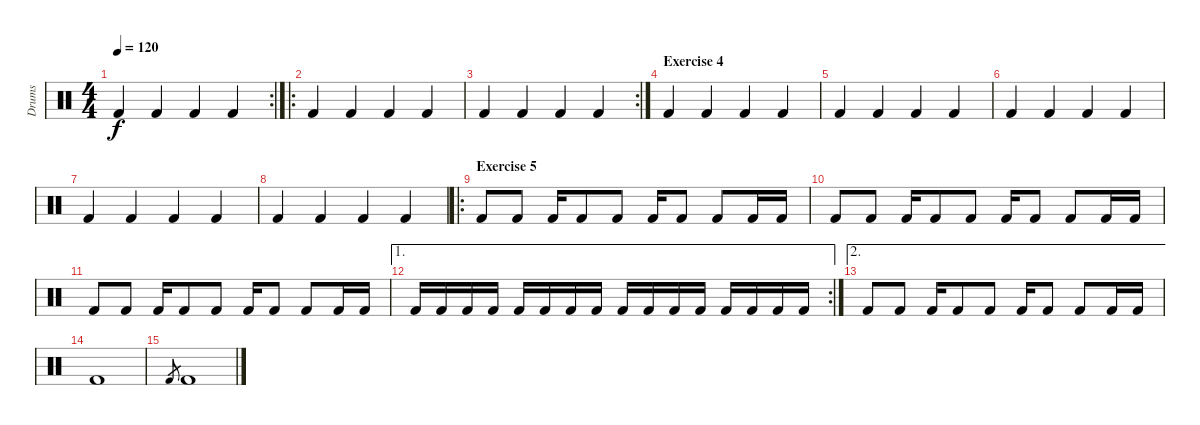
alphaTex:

\track ("Drums" "Drums") {instrument percussion}
\staff {score}
\articulation defaults
\rc 2
\ts (4 4)
\tempo 120
\clef neutral
\ks c "Kick (hit) 2".4{dy f} "Kick (hit) 2".4 "Kick (hit) 2".4 "Kick (hit) 2".4
|
\ro "Kick (hit) 2".4 "Kick (hit) 2".4 "Kick (hit) 2".4 "Kick (hit) 2".4
|
\rc 2 "Kick (hit) 2".4 "Kick (hit) 2".4 "Kick (hit) 2".4 "Kick (hit) 2".4
|
\section ("" "Exercise 4")
"Kick (hit) 2".4 "Kick (hit) 2".4 "Kick (hit) 2".4 "Kick (hit) 2".4 |
"Kick (hit) 2".4 "Kick (hit) 2".4 "Kick (hit) 2".4 "Kick (hit) 2".4 |
"Kick (hit) 2".4 "Kick (hit) 2".4 "Kick (hit) 2".4 "Kick (hit) 2".4 |
"Kick (hit) 2".4 "Kick (hit) 2".4 "Kick (hit) 2".4 "Kick (hit) 2".4 |
"Kick (hit) 2".4 "Kick (hit) 2".4 "Kick (hit) 2".4 "Kick (hit) 2".4 |
\ro
\section ("" "Exercise 5")
"Kick (hit) 2".8 "Kick (hit) 2".8 "Kick (hit) 2".16 "Kick (hit) 2".8 "Kick (hit) 2".8 "Kick (hit) 2".16 "Kick (hit) 2".8 "Kick (hit) 2".8 "Kick (hit) 2".16 "Kick (hit) 2".16 |
"Kick (hit) 2".8 "Kick (hit) 2".8 "Kick (hit) 2".16 "Kick (hit) 2".8 "Kick (hit) 2".8 "Kick (hit) 2".16 "Kick (hit) 2".8 "Kick (hit) 2".8 "Kick (hit) 2".16 "Kick (hit) 2".16 |
"Kick (hit) 2".8 "Kick (hit) 2".8 "Kick (hit) 2".16 "Kick (hit) 2".8 "Kick (hit) 2".8 "Kick (hit) 2".16 "Kick (hit) 2".8 "Kick (hit) 2".8 "Kick (hit) 2".16 "Kick (hit) 2".16 |
\ae 1
\rc 2 "Kick (hit) 2".16 "Kick (hit) 2".16 "Kick (hit) 2".16 "Kick (hit) 2".16 "Kick (hit) 2".16 "Kick (hit) 2".16 "Kick (hit) 2".16 "Kick (hit) 2".16 "Kick (hit) 2".16 "Kick (hit) 2".16 "Kick (hit) 2".16 "Kick (hit) 2".16 "Kick (hit) 2".16 "Kick (hit) 2".16 "Kick (hit) 2".16 "Kick (hit) 2".16
|
\ae 2 "Kick (hit) 2".8 "Kick (hit) 2".8 "Kick (hit) 2".16 "Kick (hit) 2".8 "Kick (hit) 2".8 "Kick (hit) 2".16 "Kick (hit) 2".8 "Kick (hit) 2".8 "Kick (hit) 2".16 "Kick (hit) 2".16
|
"Kick (hit) 2".1 |
"Kick (hit) 2".8{gr} "Kick (hit) 2".1
